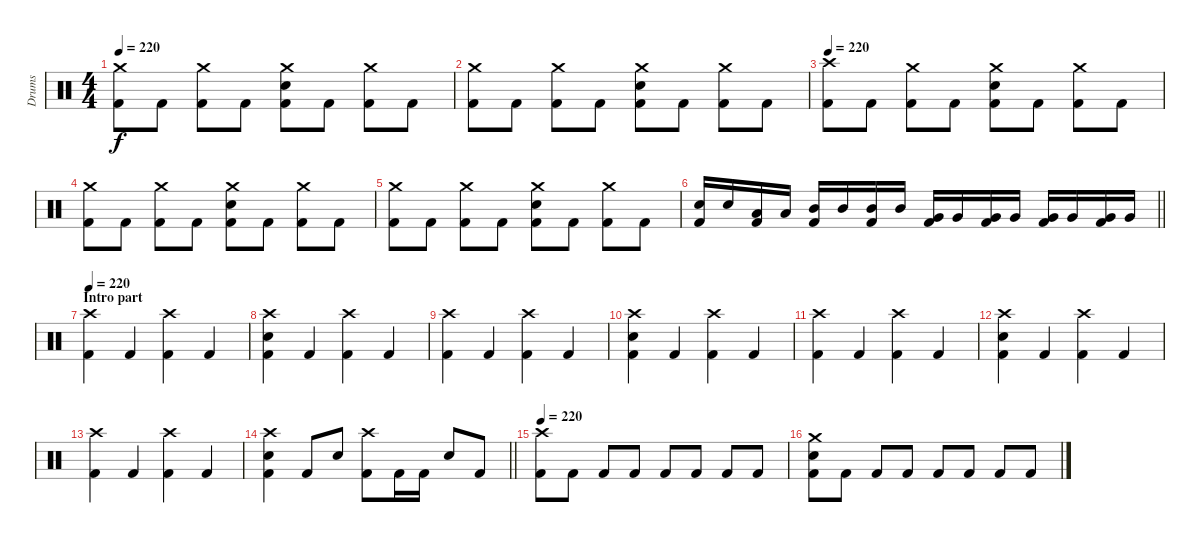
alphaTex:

\track ("Drums" "Drums") {instrument percussion}
\staff {score}
\articulation defaults
\ts (4 4)
\tempo 220
\clef neutral
\ks c
("Crash medium (hit)" "Kick (hit) 2").8{dy f} "Kick (hit) 2".8 ("Crash medium (hit)" "Kick (hit) 2").8 "Kick (hit) 2".8 ("Crash medium (hit)" "Electric Snare (hit)" "Kick (hit) 2").8 "Kick (hit) 2".8 ("Crash medium (hit)" "Kick (hit) 2").8 "Kick (hit) 2".8 |
("Crash medium (hit)" "Kick (hit) 2").8 "Kick (hit) 2".8 ("Crash medium (hit)" "Kick (hit) 2").8 "Kick (hit) 2".8 ("Crash medium (hit)" "Electric Snare (hit)" "Kick (hit) 2").8 "Kick (hit) 2".8 ("Crash medium (hit)" "Kick (hit) 2").8 "Kick (hit) 2".8 |
\tempo 220
("Crash high (hit)" "Kick (hit) 2").8 "Kick (hit) 2".8 ("Crash medium (hit)" "Kick (hit) 2").8 "Kick (hit) 2".8 ("Crash medium (hit)" "Electric Snare (hit)" "Kick (hit) 2").8 "Kick (hit) 2".8 ("Crash medium (hit)" "Kick (hit) 2").8 "Kick (hit) 2".8 |
("Crash medium (hit)" "Kick (hit) 2").8 "Kick (hit) 2".8 ("Crash medium (hit)" "Kick (hit) 2").8 "Kick (hit) 2".8 ("Crash medium (hit)" "Electric Snare (hit)" "Kick (hit) 2").8 "Kick (hit) 2".8 ("Crash medium (hit)" "Kick (hit) 2").8 "Kick (hit) 2".8 |
("Crash medium (hit)" "Kick (hit) 2").8 "Kick (hit) 2".8 ("Crash medium (hit)" "Kick (hit) 2").8 "Kick (hit) 2".8 ("Crash medium (hit)" "Electric Snare (hit)" "Kick (hit) 2").8 "Kick (hit) 2".8 ("Crash medium (hit)" "Kick (hit) 2").8 "Kick (hit) 2".8 |
\barLineRight lightlight
("Electric Snare (hit)" "Kick (hit) 2").16 "Electric Snare (hit)".16 ("Low Tom (hit)" "Kick (hit) 2").16 "Low Tom (hit)".16 ("Mid Tom (hit)" "Kick (hit) 2").16 "Mid Tom (hit)".16 ("Mid Tom (hit)" "Kick (hit) 2").16 "Mid Tom (hit)".16 ("Very Low Tom (hit)" "Kick (hit) 2").16 "Very Low Tom (hit)".16 ("Very Low Tom (hit)" "Kick (hit) 2").16 "Very Low Tom (hit)".16 ("Very Low Tom (hit)" "Kick (hit) 2").16 "Very Low Tom (hit)".16 ("Very Low Tom (hit)" "Kick (hit) 2").16 "Very Low Tom (hit)".16 |
\section ("" "Intro part")
\tempo 220
("Kick (hit) 2" "Crash high (hit)").4 "Kick (hit) 2".4 ("Kick (hit) 2" "Crash high (hit)").4 "Kick (hit) 2".4 |
("Kick (hit) 2" "Crash high (hit)" "Electric Snare (hit)").4 "Kick (hit) 2".4 ("Kick (hit) 2" "Crash high (hit)").4 "Kick (hit) 2".4 |
("Kick (hit) 2" "Crash high (hit)").4 "Kick (hit) 2".4 ("Kick (hit) 2" "Crash high (hit)").4 "Kick (hit) 2".4 |
("Kick (hit) 2" "Crash high (hit)" "Electric Snare (hit)").4 "Kick (hit) 2".4 ("Kick (hit) 2" "Crash high (hit)").4 "Kick (hit) 2".4 |
("Kick (hit) 2" "Crash high (hit)").4 "Kick (hit) 2".4 ("Kick (hit) 2" "Crash high (hit)").4 "Kick (hit) 2".4 |
("Kick (hit) 2" "Crash high (hit)" "Electric Snare (hit)").4 "Kick (hit) 2".4 ("Kick (hit) 2" "Crash high (hit)").4 "Kick (hit) 2".4 |
("Kick (hit) 2" "Crash high (hit)").4 "Kick (hit) 2".4 ("Kick (hit) 2" "Crash high (hit)").4 "Kick (hit) 2".4 |
\barLineRight lightlight
("Kick (hit) 2" "Crash high (hit)" "Electric Snare (hit)").4 "Kick (hit) 2".8 "Electric Snare (hit)".8 ("Kick (hit) 2" "Crash high (hit)").8 "Kick (hit) 2".16 "Kick (hit) 2".16 "Electric Snare (hit)".8 "Kick (hit) 2".8 |
\tempo 220
("Crash high (hit)" "Kick (hit) 2").8 "Kick (hit) 2".8 "Kick (hit) 2".8 "Kick (hit) 2".8 "Kick (hit) 2".8 "Kick (hit) 2".8 "Kick (hit) 2".8 "Kick (hit) 2".8 |
("Crash medium (hit)" "Electric Snare (hit)" "Kick (hit) 2").8 "Kick (hit) 2".8 "Kick (hit) 2".8 "Kick (hit) 2".8 "Kick (hit) 2".8 "Kick (hit) 2".8 "Kick (hit) 2".8 "Kick (hit) 2".8
